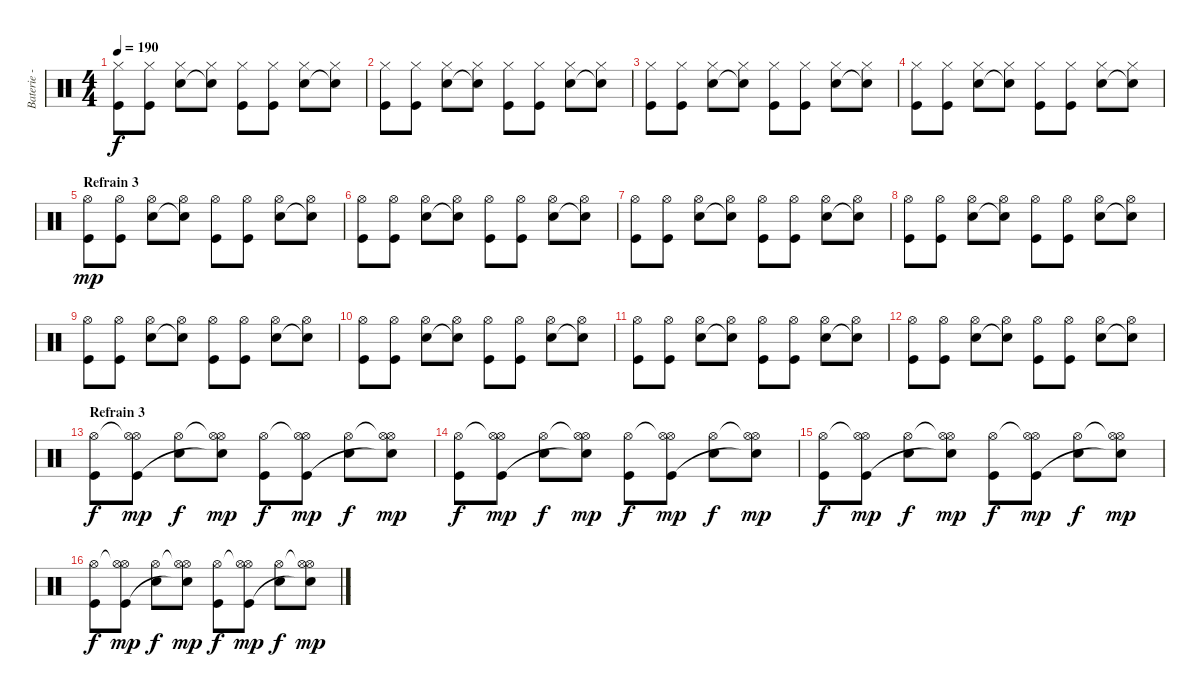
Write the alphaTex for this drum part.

\track ("Baterie - Guillaume" "Baterie - ") {instrument percussion}
\staff {score}
\articulation defaults
\ts (4 4)
\tempo 190
\clef neutral
\ks c
("Hi-Hat (closed)" "Kick (hit)").8{dy f} ("Hi-Hat (closed)" "Kick (hit)").8 ("Hi-Hat (closed)" "Electric Snare (hit)").8 ("Hi-Hat (closed)" "Snare (hit)"{t}).8 ("Hi-Hat (closed)" "Kick (hit)").8 ("Hi-Hat (closed)" "Kick (hit)").8 ("Hi-Hat (closed)" "Electric Snare (hit)").8 ("Hi-Hat (closed)" "Snare (hit)"{t}).8 |
("Hi-Hat (closed)" "Kick (hit)").8 ("Hi-Hat (closed)" "Kick (hit)").8 ("Hi-Hat (closed)" "Electric Snare (hit)").8 ("Hi-Hat (closed)" "Snare (hit)"{t}).8 ("Hi-Hat (closed)" "Kick (hit)").8 ("Hi-Hat (closed)" "Kick (hit)").8 ("Hi-Hat (closed)" "Electric Snare (hit)").8 ("Hi-Hat (closed)" "Snare (hit)"{t}).8 |
("Hi-Hat (closed)" "Kick (hit)").8 ("Hi-Hat (closed)" "Kick (hit)").8 ("Hi-Hat (closed)" "Electric Snare (hit)").8 ("Hi-Hat (closed)" "Snare (hit)"{t}).8 ("Hi-Hat (closed)" "Kick (hit)").8 ("Hi-Hat (closed)" "Kick (hit)").8 ("Hi-Hat (closed)" "Electric Snare (hit)").8 ("Hi-Hat (closed)" "Snare (hit)"{t}).8 |
("Hi-Hat (closed)" "Kick (hit)").8 ("Hi-Hat (closed)" "Kick (hit)").8 ("Hi-Hat (closed)" "Electric Snare (hit)").8 ("Hi-Hat (closed)" "Snare (hit)"{t}).8 ("Hi-Hat (closed)" "Kick (hit)").8 ("Hi-Hat (closed)" "Kick (hit)").8 ("Hi-Hat (closed)" "Electric Snare (hit)").8 ("Hi-Hat (closed)" "Snare (hit)"{t}).8 |
\section ("" "Refrain 3")
("Hi-Hat (open)" "Kick (hit)").8{dy mp} ("Hi-Hat (open)" "Kick (hit)").8 ("Hi-Hat (open)" "Electric Snare (hit)").8 ("Hi-Hat (open)" "Snare (hit)"{t}).8 ("Hi-Hat (open)" "Kick (hit)").8 ("Hi-Hat (open)" "Kick (hit)").8 ("Hi-Hat (open)" "Electric Snare (hit)").8 ("Hi-Hat (open)" "Snare (hit)"{t}).8 |
("Hi-Hat (open)" "Kick (hit)").8 ("Hi-Hat (open)" "Kick (hit)").8 ("Hi-Hat (open)" "Electric Snare (hit)").8 ("Hi-Hat (open)" "Snare (hit)"{t}).8 ("Hi-Hat (open)" "Kick (hit)").8 ("Hi-Hat (open)" "Kick (hit)").8 ("Hi-Hat (open)" "Electric Snare (hit)").8 ("Hi-Hat (open)" "Snare (hit)"{t}).8 |
("Hi-Hat (open)" "Kick (hit)").8 ("Hi-Hat (open)" "Kick (hit)").8 ("Hi-Hat (open)" "Electric Snare (hit)").8 ("Hi-Hat (open)" "Snare (hit)"{t}).8 ("Hi-Hat (open)" "Kick (hit)").8 ("Hi-Hat (open)" "Kick (hit)").8 ("Hi-Hat (open)" "Electric Snare (hit)").8 ("Hi-Hat (open)" "Snare (hit)"{t}).8 |
("Hi-Hat (open)" "Kick (hit)").8 ("Hi-Hat (open)" "Kick (hit)").8 ("Hi-Hat (open)" "Electric Snare (hit)").8 ("Hi-Hat (open)" "Snare (hit)"{t}).8 ("Hi-Hat (open)" "Kick (hit)").8 ("Hi-Hat (open)" "Kick (hit)").8 ("Hi-Hat (open)" "Electric Snare (hit)").8 ("Hi-Hat (open)" "Snare (hit)"{t}).8 |
("Hi-Hat (open)" "Kick (hit)").8 ("Hi-Hat (open)" "Kick (hit)").8 ("Hi-Hat (open)" "Electric Snare (hit)").8 ("Hi-Hat (open)" "Snare (hit)"{t}).8 ("Hi-Hat (open)" "Kick (hit)").8 ("Hi-Hat (open)" "Kick (hit)").8 ("Hi-Hat (open)" "Electric Snare (hit)").8 ("Hi-Hat (open)" "Snare (hit)"{t}).8 |
("Hi-Hat (open)" "Kick (hit)").8 ("Hi-Hat (open)" "Kick (hit)").8 ("Hi-Hat (open)" "Electric Snare (hit)").8 ("Hi-Hat (open)" "Snare (hit)"{t}).8 ("Hi-Hat (open)" "Kick (hit)").8 ("Hi-Hat (open)" "Kick (hit)").8 ("Hi-Hat (open)" "Electric Snare (hit)").8 ("Hi-Hat (open)" "Snare (hit)"{t}).8 |
("Hi-Hat (open)" "Kick (hit)").8 ("Hi-Hat (open)" "Kick (hit)").8 ("Hi-Hat (open)" "Electric Snare (hit)").8 ("Hi-Hat (open)" "Snare (hit)"{t}).8 ("Hi-Hat (open)" "Kick (hit)").8 ("Hi-Hat (open)" "Kick (hit)").8 ("Hi-Hat (open)" "Electric Snare (hit)").8 ("Hi-Hat (open)" "Snare (hit)"{t}).8 |
("Hi-Hat (open)" "Kick (hit)").8 ("Hi-Hat (open)" "Kick (hit)").8 ("Hi-Hat (open)" "Electric Snare (hit)").8 ("Hi-Hat (open)" "Snare (hit)"{t}).8 ("Hi-Hat (open)" "Kick (hit)").8 ("Hi-Hat (open)" "Kick (hit)").8 ("Hi-Hat (open)" "Electric Snare (hit)").8 ("Hi-Hat (open)" "Snare (hit)"{t}).8 |
\section ("" "Refrain 3")
("Hi-Hat (open)" "Kick (hit)").8{dy f} ("Hi-Hat (open)"{t} "Hi-Hat (open)" "Kick (hit)").8{dy mp} ("Hi-Hat (open)" "Electric Snare (hit)").8{dy f} ("Hi-Hat (open)"{t} "Hi-Hat (open)" "Snare (hit)"{t}).8{dy mp} ("Hi-Hat (open)" "Kick (hit)").8{dy f} ("Hi-Hat (open)"{t} "Hi-Hat (open)" "Kick (hit)").8{dy mp} ("Hi-Hat (open)" "Electric Snare (hit)").8{dy f} ("Hi-Hat (open)"{t} "Hi-Hat (open)" "Snare (hit)"{t}).8{dy mp} |
("Hi-Hat (open)" "Kick (hit)").8{dy f} ("Hi-Hat (open)"{t} "Hi-Hat (open)" "Kick (hit)").8{dy mp} ("Hi-Hat (open)" "Electric Snare (hit)").8{dy f} ("Hi-Hat (open)"{t} "Hi-Hat (open)" "Snare (hit)"{t}).8{dy mp} ("Hi-Hat (open)" "Kick (hit)").8{dy f} ("Hi-Hat (open)"{t} "Hi-Hat (open)" "Kick (hit)").8{dy mp} ("Hi-Hat (open)" "Electric Snare (hit)").8{dy f} ("Hi-Hat (open)"{t} "Hi-Hat (open)" "Snare (hit)"{t}).8{dy mp} |
("Hi-Hat (open)" "Kick (hit)").8{dy f} ("Hi-Hat (open)"{t} "Hi-Hat (open)" "Kick (hit)").8{dy mp} ("Hi-Hat (open)" "Electric Snare (hit)").8{dy f} ("Hi-Hat (open)"{t} "Hi-Hat (open)" "Snare (hit)"{t}).8{dy mp} ("Hi-Hat (open)" "Kick (hit)").8{dy f} ("Hi-Hat (open)"{t} "Hi-Hat (open)" "Kick (hit)").8{dy mp} ("Hi-Hat (open)" "Electric Snare (hit)").8{dy f} ("Hi-Hat (open)"{t} "Hi-Hat (open)" "Snare (hit)"{t}).8{dy mp} |
("Hi-Hat (open)" "Kick (hit)").8{dy f} ("Hi-Hat (open)"{t} "Hi-Hat (open)" "Kick (hit)").8{dy mp} ("Hi-Hat (open)" "Electric Snare (hit)").8{dy f} ("Hi-Hat (open)"{t} "Hi-Hat (open)" "Snare (hit)"{t}).8{dy mp} ("Hi-Hat (open)" "Kick (hit)").8{dy f} ("Hi-Hat (open)"{t} "Hi-Hat (open)" "Kick (hit)").8{dy mp} ("Hi-Hat (open)" "Electric Snare (hit)").8{dy f} ("Hi-Hat (open)"{t} "Hi-Hat (open)" "Snare (hit)"{t}).8{dy mp}
